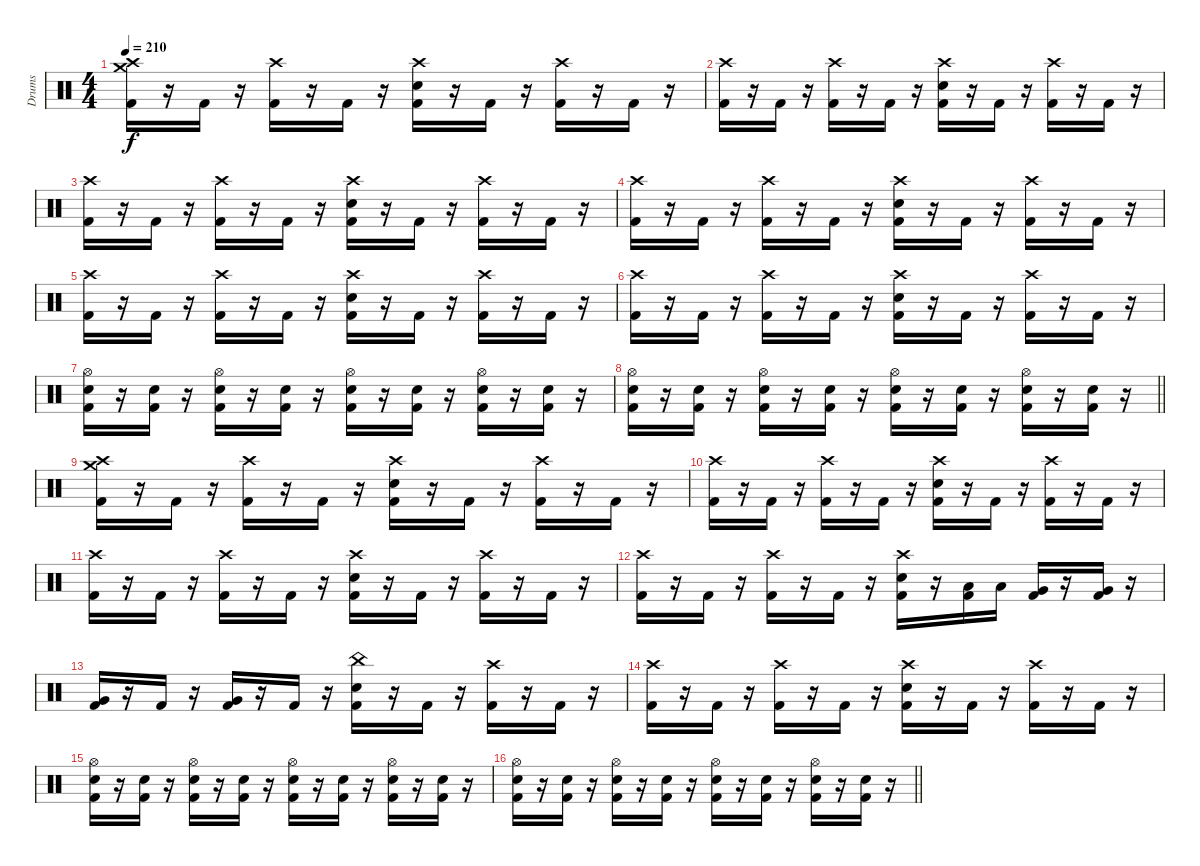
\track ("Drums" "Drums") {instrument percussion}
\staff {score}
\articulation defaults
\ts (4 4)
\tempo 210
\clef neutral
\ks c
("Crash high (hit)" "Crash medium (hit)" "Kick (hit) 2").16{dy f} r.16 "Kick (hit) 2".16 r.16 ("Crash high (hit)" "Kick (hit) 2").16 r.16 "Kick (hit) 2".16 r.16 ("Crash high (hit)" "Electric Snare (hit)" "Kick (hit) 2").16 r.16 "Kick (hit) 2".16 r.16 ("Crash high (hit)" "Kick (hit) 2").16 r.16 "Kick (hit) 2".16 r.16 |
("Crash high (hit)" "Kick (hit) 2").16 r.16 "Kick (hit) 2".16 r.16 ("Crash high (hit)" "Kick (hit) 2").16 r.16 "Kick (hit) 2".16 r.16 ("Crash high (hit)" "Electric Snare (hit)" "Kick (hit) 2").16 r.16 "Kick (hit) 2".16 r.16 ("Crash high (hit)" "Kick (hit) 2").16 r.16 "Kick (hit) 2".16 r.16 |
("Crash high (hit)" "Kick (hit) 2").16 r.16 "Kick (hit) 2".16 r.16 ("Crash high (hit)" "Kick (hit) 2").16 r.16 "Kick (hit) 2".16 r.16 ("Crash high (hit)" "Electric Snare (hit)" "Kick (hit) 2").16 r.16 "Kick (hit) 2".16 r.16 ("Crash high (hit)" "Kick (hit) 2").16 r.16 "Kick (hit) 2".16 r.16 |
("Crash high (hit)" "Kick (hit) 2").16 r.16 "Kick (hit) 2".16 r.16 ("Crash high (hit)" "Kick (hit) 2").16 r.16 "Kick (hit) 2".16 r.16 ("Crash high (hit)" "Electric Snare (hit)" "Kick (hit) 2").16 r.16 "Kick (hit) 2".16 r.16 ("Crash high (hit)" "Kick (hit) 2").16 r.16 "Kick (hit) 2".16 r.16 |
("Crash high (hit)" "Kick (hit) 2").16 r.16 "Kick (hit) 2".16 r.16 ("Crash high (hit)" "Kick (hit) 2").16 r.16 "Kick (hit) 2".16 r.16 ("Crash high (hit)" "Electric Snare (hit)" "Kick (hit) 2").16 r.16 "Kick (hit) 2".16 r.16 ("Crash high (hit)" "Kick (hit) 2").16 r.16 "Kick (hit) 2".16 r.16 |
("Crash high (hit)" "Kick (hit) 2").16 r.16 "Kick (hit) 2".16 r.16 ("Crash high (hit)" "Kick (hit) 2").16 r.16 "Kick (hit) 2".16 r.16 ("Crash high (hit)" "Electric Snare (hit)" "Kick (hit) 2").16 r.16 "Kick (hit) 2".16 r.16 ("Crash high (hit)" "Kick (hit) 2").16 r.16 "Kick (hit) 2".16 r.16 |
("Hi-Hat (open)" "Electric Snare (hit)" "Kick (hit) 2").16 r.16 ("Electric Snare (hit)" "Kick (hit) 2").16 r.16 ("Hi-Hat (open)" "Electric Snare (hit)" "Kick (hit) 2").16 r.16 ("Electric Snare (hit)" "Kick (hit) 2").16 r.16 ("Hi-Hat (open)" "Electric Snare (hit)" "Kick (hit) 2").16 r.16 ("Electric Snare (hit)" "Kick (hit) 2").16 r.16 ("Hi-Hat (open)" "Electric Snare (hit)" "Kick (hit) 2").16 r.16 ("Electric Snare (hit)" "Kick (hit) 2").16 r.16 |
\barLineRight lightlight
("Hi-Hat (open)" "Electric Snare (hit)" "Kick (hit) 2").16 r.16 ("Electric Snare (hit)" "Kick (hit) 2").16 r.16 ("Hi-Hat (open)" "Electric Snare (hit)" "Kick (hit) 2").16 r.16 ("Electric Snare (hit)" "Kick (hit) 2").16 r.16 ("Hi-Hat (open)" "Electric Snare (hit)" "Kick (hit) 2").16 r.16 ("Electric Snare (hit)" "Kick (hit) 2").16 r.16 ("Hi-Hat (open)" "Electric Snare (hit)" "Kick (hit) 2").16 r.16 ("Electric Snare (hit)" "Kick (hit) 2").16 r.16 |
("Crash high (hit)" "Crash medium (hit)" "Kick (hit) 2").16 r.16 "Kick (hit) 2".16 r.16 ("Crash high (hit)" "Kick (hit) 2").16 r.16 "Kick (hit) 2".16 r.16 ("Crash high (hit)" "Electric Snare (hit)" "Kick (hit) 2").16 r.16 "Kick (hit) 2".16 r.16 ("Crash high (hit)" "Kick (hit) 2").16 r.16 "Kick (hit) 2".16 r.16 |
("Crash high (hit)" "Kick (hit) 2").16 r.16 "Kick (hit) 2".16 r.16 ("Crash high (hit)" "Kick (hit) 2").16 r.16 "Kick (hit) 2".16 r.16 ("Crash high (hit)" "Electric Snare (hit)" "Kick (hit) 2").16 r.16 "Kick (hit) 2".16 r.16 ("Crash high (hit)" "Kick (hit) 2").16 r.16 "Kick (hit) 2".16 r.16 |
("Crash high (hit)" "Kick (hit) 2").16 r.16 "Kick (hit) 2".16 r.16 ("Crash high (hit)" "Kick (hit) 2").16 r.16 "Kick (hit) 2".16 r.16 ("Crash high (hit)" "Electric Snare (hit)" "Kick (hit) 2").16 r.16 "Kick (hit) 2".16 r.16 ("Crash high (hit)" "Kick (hit) 2").16 r.16 "Kick (hit) 2".16 r.16 |
("Crash high (hit)" "Kick (hit) 2").16 r.16 "Kick (hit) 2".16 r.16 ("Crash high (hit)" "Kick (hit) 2").16 r.16 "Kick (hit) 2".16 r.16 ("Crash high (hit)" "Electric Snare (hit)" "Kick (hit) 2").16 r.16 ("Low Tom (hit)" "Kick (hit) 2").16 "Low Tom (hit)".16 ("Very Low Tom (hit)" "Kick (hit) 2").16 r.16 ("Very Low Tom (hit)" "Kick (hit) 2").16 r.16 |
("Very Low Tom (hit)" "Kick (hit) 2").16 r.16 "Kick (hit) 2".16 r.16 ("Very Low Tom (hit)" "Kick (hit) 2").16 r.16 "Kick (hit) 2".16 r.16 ("China (hit)" "Electric Snare (hit)" "Kick (hit) 2").16 r.16 "Kick (hit) 2".16 r.16 ("Crash high (hit)" "Kick (hit) 2").16 r.16 "Kick (hit) 2".16 r.16 |
("Crash high (hit)" "Kick (hit) 2").16 r.16 "Kick (hit) 2".16 r.16 ("Crash high (hit)" "Kick (hit) 2").16 r.16 "Kick (hit) 2".16 r.16 ("Crash high (hit)" "Electric Snare (hit)" "Kick (hit) 2").16 r.16 "Kick (hit) 2".16 r.16 ("Crash high (hit)" "Kick (hit) 2").16 r.16 "Kick (hit) 2".16 r.16 |
("Hi-Hat (open)" "Electric Snare (hit)" "Kick (hit) 2").16 r.16 ("Electric Snare (hit)" "Kick (hit) 2").16 r.16 ("Hi-Hat (open)" "Electric Snare (hit)" "Kick (hit) 2").16 r.16 ("Electric Snare (hit)" "Kick (hit) 2").16 r.16 ("Hi-Hat (open)" "Electric Snare (hit)" "Kick (hit) 2").16 r.16 ("Electric Snare (hit)" "Kick (hit) 2").16 r.16 ("Hi-Hat (open)" "Electric Snare (hit)" "Kick (hit) 2").16 r.16 ("Electric Snare (hit)" "Kick (hit) 2").16 r.16 |
\barLineRight lightlight
("Hi-Hat (open)" "Electric Snare (hit)" "Kick (hit) 2").16 r.16 ("Electric Snare (hit)" "Kick (hit) 2").16 r.16 ("Hi-Hat (open)" "Electric Snare (hit)" "Kick (hit) 2").16 r.16 ("Electric Snare (hit)" "Kick (hit) 2").16 r.16 ("Hi-Hat (open)" "Electric Snare (hit)" "Kick (hit) 2").16 r.16 ("Electric Snare (hit)" "Kick (hit) 2").16 r.16 ("Hi-Hat (open)" "Electric Snare (hit)" "Kick (hit) 2").16 r.16 ("Electric Snare (hit)" "Kick (hit) 2").16 r.16
